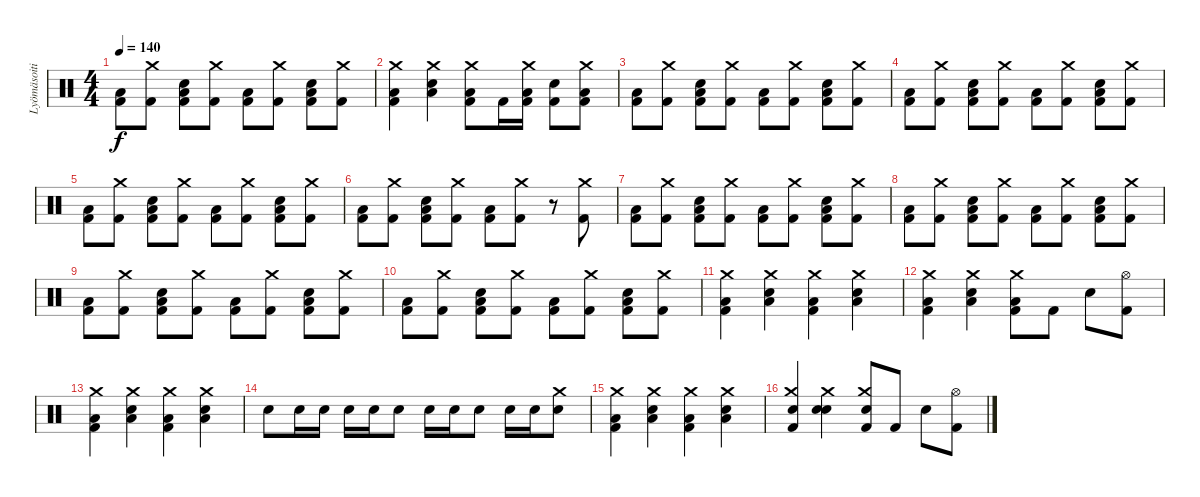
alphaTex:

\track ("Lyömäsoitin" "Lyömäsoiti") {instrument percussion}
\staff {score}
\articulation defaults
\ts (4 4)
\tempo 140
\clef neutral
\ks c
("Low Floor Tom (hit)" "Kick (hit) 2").8{dy f} ("Crash medium (hit)" "Kick (hit) 2").8 ("Low Floor Tom (hit)" "Snare (hit) 2" "Kick (hit) 2").8 ("Crash medium (hit)" "Kick (hit) 2").8 ("Low Floor Tom (hit)" "Kick (hit) 2").8 ("Crash medium (hit)" "Kick (hit) 2").8 ("Low Floor Tom (hit)" "Snare (hit) 2" "Kick (hit) 2").8 ("Crash medium (hit)" "Kick (hit) 2").8 |
("Crash medium (hit)" "Low Floor Tom (hit)" "Kick (hit) 2").4 ("Crash medium (hit)" "Low Floor Tom (hit)" "Snare (hit) 2").4 ("Crash medium (hit)" "Low Floor Tom (hit)" "Kick (hit) 2").8 "Kick (hit) 2".16 ("Crash medium (hit)" "Low Floor Tom (hit)" "Kick (hit) 2").16 ("Snare (hit) 2" "Kick (hit) 2").8 ("Crash medium (hit)" "Low Floor Tom (hit)" "Kick (hit) 2").8 |
("Low Floor Tom (hit)" "Kick (hit) 2").8 ("Crash medium (hit)" "Kick (hit) 2").8 ("Low Floor Tom (hit)" "Snare (hit) 2" "Kick (hit) 2").8 ("Crash medium (hit)" "Kick (hit) 2").8 ("Low Floor Tom (hit)" "Kick (hit) 2").8 ("Crash medium (hit)" "Kick (hit) 2").8 ("Low Floor Tom (hit)" "Snare (hit) 2" "Kick (hit) 2").8 ("Crash medium (hit)" "Kick (hit) 2").8 |
("Low Floor Tom (hit)" "Kick (hit) 2").8 ("Crash medium (hit)" "Kick (hit) 2").8 ("Low Floor Tom (hit)" "Snare (hit) 2" "Kick (hit) 2").8 ("Crash medium (hit)" "Kick (hit) 2").8 ("Low Floor Tom (hit)" "Kick (hit) 2").8 ("Crash medium (hit)" "Kick (hit) 2").8 ("Low Floor Tom (hit)" "Snare (hit) 2" "Kick (hit) 2").8 ("Crash medium (hit)" "Kick (hit) 2").8 |
("Low Floor Tom (hit)" "Kick (hit) 2").8 ("Crash medium (hit)" "Kick (hit) 2").8 ("Low Floor Tom (hit)" "Snare (hit) 2" "Kick (hit) 2").8 ("Crash medium (hit)" "Kick (hit) 2").8 ("Low Floor Tom (hit)" "Kick (hit) 2").8 ("Crash medium (hit)" "Kick (hit) 2").8 ("Low Floor Tom (hit)" "Snare (hit) 2" "Kick (hit) 2").8 ("Crash medium (hit)" "Kick (hit) 2").8 |
("Low Floor Tom (hit)" "Kick (hit) 2").8 ("Crash medium (hit)" "Kick (hit) 2").8 ("Low Floor Tom (hit)" "Snare (hit) 2" "Kick (hit) 2").8 ("Crash medium (hit)" "Kick (hit) 2").8 ("Low Floor Tom (hit)" "Kick (hit) 2").8 ("Crash medium (hit)" "Kick (hit) 2").8 r.8 ("Crash medium (hit)" "Kick (hit) 2").8 |
("Low Floor Tom (hit)" "Kick (hit) 2").8 ("Crash medium (hit)" "Kick (hit) 2").8 ("Low Floor Tom (hit)" "Snare (hit) 2" "Kick (hit) 2").8 ("Crash medium (hit)" "Kick (hit) 2").8 ("Low Floor Tom (hit)" "Kick (hit) 2").8 ("Crash medium (hit)" "Kick (hit) 2").8 ("Low Floor Tom (hit)" "Snare (hit) 2" "Kick (hit) 2").8 ("Crash medium (hit)" "Kick (hit) 2").8 |
("Low Floor Tom (hit)" "Kick (hit) 2").8 ("Crash medium (hit)" "Kick (hit) 2").8 ("Low Floor Tom (hit)" "Snare (hit) 2" "Kick (hit) 2").8 ("Crash medium (hit)" "Kick (hit) 2").8 ("Low Floor Tom (hit)" "Kick (hit) 2").8 ("Crash medium (hit)" "Kick (hit) 2").8 ("Low Floor Tom (hit)" "Snare (hit) 2" "Kick (hit) 2").8 ("Crash medium (hit)" "Kick (hit) 2").8 |
("Low Floor Tom (hit)" "Kick (hit) 2").8 ("Crash medium (hit)" "Kick (hit) 2").8 ("Low Floor Tom (hit)" "Snare (hit) 2" "Kick (hit) 2").8 ("Crash medium (hit)" "Kick (hit) 2").8 ("Low Floor Tom (hit)" "Kick (hit) 2").8 ("Crash medium (hit)" "Kick (hit) 2").8 ("Low Floor Tom (hit)" "Snare (hit) 2" "Kick (hit) 2").8 ("Crash medium (hit)" "Kick (hit) 2").8 |
("Low Floor Tom (hit)" "Kick (hit) 2").8 ("Crash medium (hit)" "Kick (hit) 2").8 ("Low Floor Tom (hit)" "Snare (hit) 2" "Kick (hit) 2").8 ("Crash medium (hit)" "Kick (hit) 2").8 ("Low Floor Tom (hit)" "Kick (hit) 2").8 ("Crash medium (hit)" "Kick (hit) 2").8 ("Low Floor Tom (hit)" "Snare (hit) 2" "Kick (hit) 2").8 ("Crash medium (hit)" "Kick (hit) 2").8 |
("Crash medium (hit)" "Low Floor Tom (hit)" "Kick (hit) 2").4 ("Crash medium (hit)" "Low Floor Tom (hit)" "Snare (hit) 2").4 ("Crash medium (hit)" "Low Floor Tom (hit)" "Kick (hit) 2").4 ("Crash medium (hit)" "Low Floor Tom (hit)" "Snare (hit) 2").4 |
("Crash medium (hit)" "Low Floor Tom (hit)" "Kick (hit) 2").4 ("Crash medium (hit)" "Low Floor Tom (hit)" "Snare (hit) 2").4 ("Crash medium (hit)" "Low Floor Tom (hit)" "Kick (hit) 2").8 "Kick (hit) 2".8 "Snare (hit) 2".8 ("Hi-Hat (open)" "Kick (hit) 2").8 |
("Crash medium (hit)" "Low Floor Tom (hit)" "Kick (hit) 2").4 ("Crash medium (hit)" "Low Floor Tom (hit)" "Snare (hit) 2").4 ("Crash medium (hit)" "Low Floor Tom (hit)" "Kick (hit) 2").4 ("Crash medium (hit)" "Low Floor Tom (hit)" "Snare (hit) 2").4 |
"Electric Snare (hit)".8 "Snare (hit) 2".16 "Snare (hit) 2".16 "Snare (hit) 2".16 "Snare (hit) 2".16 "Electric Snare (hit)".8 "Snare (hit) 2".16 "Snare (hit) 2".16 "Electric Snare (hit)".8 "Snare (hit) 2".16 "Snare (hit) 2".16 ("Crash medium (hit)" "Electric Snare (hit)").8 |
("Crash medium (hit)" "Low Floor Tom (hit)" "Kick (hit) 2").4 ("Crash medium (hit)" "Low Floor Tom (hit)" "Snare (hit) 2").4 ("Crash medium (hit)" "Low Floor Tom (hit)" "Kick (hit) 2").4 ("Crash medium (hit)" "Low Floor Tom (hit)" "Snare (hit) 2").4 |
("Crash medium (hit)" "Electric Snare (hit)" "Kick (hit) 2").4 ("Crash medium (hit)" "Electric Snare (hit)" "Snare (hit) 2").4 ("Crash medium (hit)" "Electric Snare (hit)" "Kick (hit) 2").8 "Kick (hit) 2".8 "Snare (hit) 2".8 ("Hi-Hat (open)" "Kick (hit) 2").8
